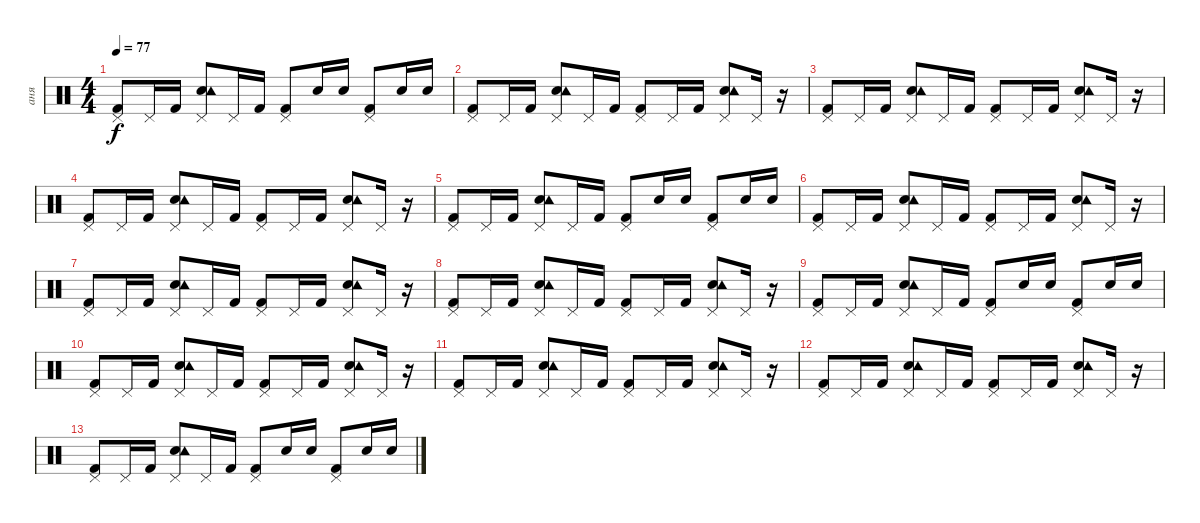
\track ("аня" "аня") {instrument percussion}
\staff {score}
\articulation defaults
\ts (4 4)
\tempo 77
\clef neutral
\ks c
("Kick (hit) 2" "Pedal Hi-Hat (hit)").8{dy f} "Pedal Hi-Hat (hit)".16 "Kick (hit) 2".16 ("Snare (hit) 2" "Tambourine (hit)" "Pedal Hi-Hat (hit)").8 "Pedal Hi-Hat (hit)".16 "Kick (hit) 2".16 ("Kick (hit) 2" "Pedal Hi-Hat (hit)").8 "Snare (hit) 2".16 "Snare (hit) 2".16 ("Kick (hit) 2" "Pedal Hi-Hat (hit)").8 "Snare (hit) 2".16 "Snare (hit) 2".16 |
("Kick (hit) 2" "Pedal Hi-Hat (hit)").8 "Pedal Hi-Hat (hit)".16 "Kick (hit) 2".16 ("Snare (hit) 2" "Tambourine (hit)" "Pedal Hi-Hat (hit)").8 "Pedal Hi-Hat (hit)".16 "Kick (hit) 2".16 ("Kick (hit) 2" "Pedal Hi-Hat (hit)").8 "Pedal Hi-Hat (hit)".16 "Kick (hit) 2".16 ("Snare (hit) 2" "Tambourine (hit)" "Pedal Hi-Hat (hit)").8 "Pedal Hi-Hat (hit)".16 r.16 |
("Kick (hit) 2" "Pedal Hi-Hat (hit)").8 "Pedal Hi-Hat (hit)".16 "Kick (hit) 2".16 ("Snare (hit) 2" "Tambourine (hit)" "Pedal Hi-Hat (hit)").8 "Pedal Hi-Hat (hit)".16 "Kick (hit) 2".16 ("Kick (hit) 2" "Pedal Hi-Hat (hit)").8 "Pedal Hi-Hat (hit)".16 "Kick (hit) 2".16 ("Snare (hit) 2" "Tambourine (hit)" "Pedal Hi-Hat (hit)").8 "Pedal Hi-Hat (hit)".16 r.16 |
("Kick (hit) 2" "Pedal Hi-Hat (hit)").8 "Pedal Hi-Hat (hit)".16 "Kick (hit) 2".16 ("Snare (hit) 2" "Tambourine (hit)" "Pedal Hi-Hat (hit)").8 "Pedal Hi-Hat (hit)".16 "Kick (hit) 2".16 ("Kick (hit) 2" "Pedal Hi-Hat (hit)").8 "Pedal Hi-Hat (hit)".16 "Kick (hit) 2".16 ("Snare (hit) 2" "Tambourine (hit)" "Pedal Hi-Hat (hit)").8 "Pedal Hi-Hat (hit)".16 r.16 |
("Kick (hit) 2" "Pedal Hi-Hat (hit)").8 "Pedal Hi-Hat (hit)".16 "Kick (hit) 2".16 ("Snare (hit) 2" "Tambourine (hit)" "Pedal Hi-Hat (hit)").8 "Pedal Hi-Hat (hit)".16 "Kick (hit) 2".16 ("Kick (hit) 2" "Pedal Hi-Hat (hit)").8 "Snare (hit) 2".16 "Snare (hit) 2".16 ("Kick (hit) 2" "Pedal Hi-Hat (hit)").8 "Snare (hit) 2".16 "Snare (hit) 2".16 |
("Kick (hit) 2" "Pedal Hi-Hat (hit)").8 "Pedal Hi-Hat (hit)".16 "Kick (hit) 2".16 ("Snare (hit) 2" "Tambourine (hit)" "Pedal Hi-Hat (hit)").8 "Pedal Hi-Hat (hit)".16 "Kick (hit) 2".16 ("Kick (hit) 2" "Pedal Hi-Hat (hit)").8 "Pedal Hi-Hat (hit)".16 "Kick (hit) 2".16 ("Snare (hit) 2" "Tambourine (hit)" "Pedal Hi-Hat (hit)").8 "Pedal Hi-Hat (hit)".16 r.16 |
("Kick (hit) 2" "Pedal Hi-Hat (hit)").8 "Pedal Hi-Hat (hit)".16 "Kick (hit) 2".16 ("Snare (hit) 2" "Tambourine (hit)" "Pedal Hi-Hat (hit)").8 "Pedal Hi-Hat (hit)".16 "Kick (hit) 2".16 ("Kick (hit) 2" "Pedal Hi-Hat (hit)").8 "Pedal Hi-Hat (hit)".16 "Kick (hit) 2".16 ("Snare (hit) 2" "Tambourine (hit)" "Pedal Hi-Hat (hit)").8 "Pedal Hi-Hat (hit)".16 r.16 |
("Kick (hit) 2" "Pedal Hi-Hat (hit)").8 "Pedal Hi-Hat (hit)".16 "Kick (hit) 2".16 ("Snare (hit) 2" "Tambourine (hit)" "Pedal Hi-Hat (hit)").8 "Pedal Hi-Hat (hit)".16 "Kick (hit) 2".16 ("Kick (hit) 2" "Pedal Hi-Hat (hit)").8 "Pedal Hi-Hat (hit)".16 "Kick (hit) 2".16 ("Snare (hit) 2" "Tambourine (hit)" "Pedal Hi-Hat (hit)").8 "Pedal Hi-Hat (hit)".16 r.16 |
("Kick (hit) 2" "Pedal Hi-Hat (hit)").8 "Pedal Hi-Hat (hit)".16 "Kick (hit) 2".16 ("Snare (hit) 2" "Tambourine (hit)" "Pedal Hi-Hat (hit)").8 "Pedal Hi-Hat (hit)".16 "Kick (hit) 2".16 ("Kick (hit) 2" "Pedal Hi-Hat (hit)").8 "Snare (hit) 2".16 "Snare (hit) 2".16 ("Kick (hit) 2" "Pedal Hi-Hat (hit)").8 "Snare (hit) 2".16 "Snare (hit) 2".16 |
("Kick (hit) 2" "Pedal Hi-Hat (hit)").8 "Pedal Hi-Hat (hit)".16 "Kick (hit) 2".16 ("Snare (hit) 2" "Tambourine (hit)" "Pedal Hi-Hat (hit)").8 "Pedal Hi-Hat (hit)".16 "Kick (hit) 2".16 ("Kick (hit) 2" "Pedal Hi-Hat (hit)").8 "Pedal Hi-Hat (hit)".16 "Kick (hit) 2".16 ("Snare (hit) 2" "Tambourine (hit)" "Pedal Hi-Hat (hit)").8 "Pedal Hi-Hat (hit)".16 r.16 |
("Kick (hit) 2" "Pedal Hi-Hat (hit)").8 "Pedal Hi-Hat (hit)".16 "Kick (hit) 2".16 ("Snare (hit) 2" "Tambourine (hit)" "Pedal Hi-Hat (hit)").8 "Pedal Hi-Hat (hit)".16 "Kick (hit) 2".16 ("Kick (hit) 2" "Pedal Hi-Hat (hit)").8 "Pedal Hi-Hat (hit)".16 "Kick (hit) 2".16 ("Snare (hit) 2" "Tambourine (hit)" "Pedal Hi-Hat (hit)").8 "Pedal Hi-Hat (hit)".16 r.16 |
("Kick (hit) 2" "Pedal Hi-Hat (hit)").8 "Pedal Hi-Hat (hit)".16 "Kick (hit) 2".16 ("Snare (hit) 2" "Tambourine (hit)" "Pedal Hi-Hat (hit)").8 "Pedal Hi-Hat (hit)".16 "Kick (hit) 2".16 ("Kick (hit) 2" "Pedal Hi-Hat (hit)").8 "Pedal Hi-Hat (hit)".16 "Kick (hit) 2".16 ("Snare (hit) 2" "Tambourine (hit)" "Pedal Hi-Hat (hit)").8 "Pedal Hi-Hat (hit)".16 r.16 |
("Kick (hit) 2" "Pedal Hi-Hat (hit)").8 "Pedal Hi-Hat (hit)".16 "Kick (hit) 2".16 ("Snare (hit) 2" "Tambourine (hit)" "Pedal Hi-Hat (hit)").8 "Pedal Hi-Hat (hit)".16 "Kick (hit) 2".16 ("Kick (hit) 2" "Pedal Hi-Hat (hit)").8 "Snare (hit) 2".16 "Snare (hit) 2".16 ("Kick (hit) 2" "Pedal Hi-Hat (hit)").8 "Snare (hit) 2".16 "Snare (hit) 2".16
